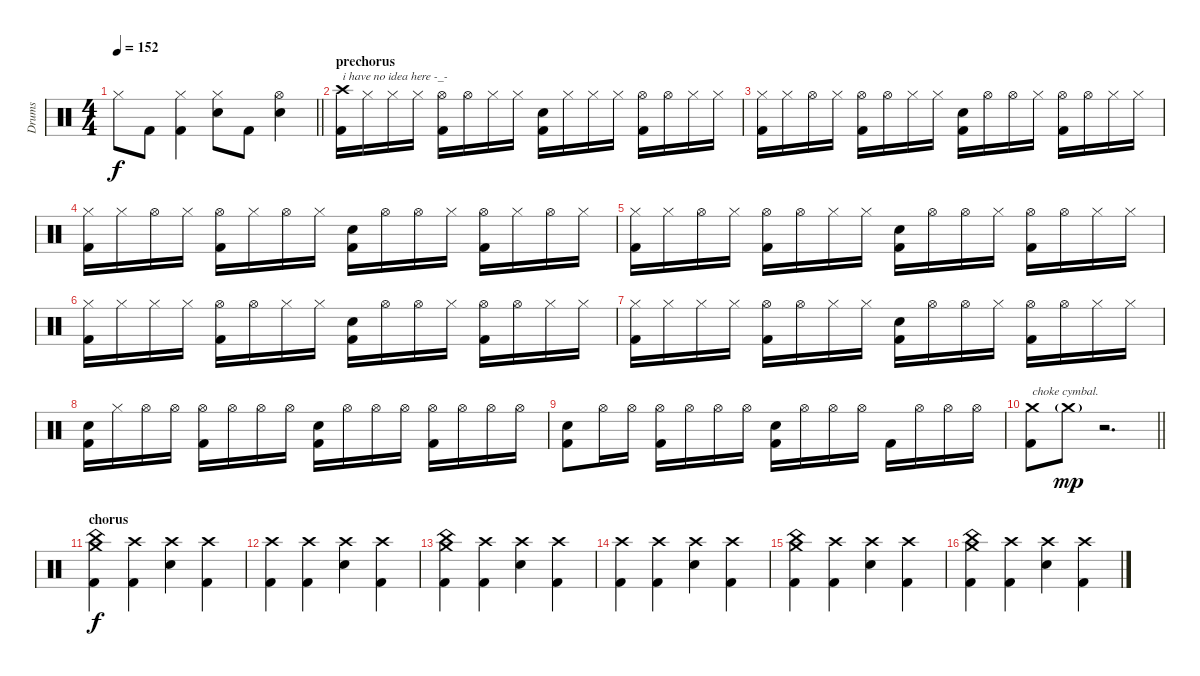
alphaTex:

\track ("Drums" "Drums") {instrument percussion}
\staff {score}
\articulation defaults
\ts (4 4)
\tempo 152
\clef neutral
\barLineRight lightlight
\ks c "Hi-Hat (closed)".8{dy f} "Kick (hit) 2".8
("Hi-Hat (closed)" "Kick (hit) 2").4 ("Hi-Hat (closed)" "Electric Snare (hit)").8 "Kick (hit) 2".8 ("Hi-Hat (open)" "Electric Snare (hit)").4 |
\section ("" "prechorus")
("Crash high (hit)" "Kick (hit) 2").16{txt "i have no idea here -_-"} "Hi-Hat (closed)".16 "Hi-Hat (closed)".16 "Hi-Hat (closed)".16 ("Hi-Hat (open)" "Kick (hit) 2").16 "Hi-Hat (open)".16 "Hi-Hat (closed)".16 "Hi-Hat (closed)".16 ("Electric Snare (hit)" "Kick (hit) 2").16 "Hi-Hat (closed)".16 "Hi-Hat (closed)".16 "Hi-Hat (closed)".16 ("Hi-Hat (open)" "Kick (hit) 2").16 "Hi-Hat (open)".16 "Hi-Hat (closed)".16 "Hi-Hat (closed)".16 |
("Hi-Hat (closed)" "Kick (hit) 2").16 "Hi-Hat (closed)".16 "Hi-Hat (open)".16 "Hi-Hat (closed)".16 ("Hi-Hat (open)" "Kick (hit) 2").16 "Hi-Hat (open)".16 "Hi-Hat (closed)".16 "Hi-Hat (closed)".16 ("Electric Snare (hit)" "Kick (hit) 2").16 "Hi-Hat (open)".16 "Hi-Hat (open)".16 "Hi-Hat (closed)".16 ("Hi-Hat (open)" "Kick (hit) 2").16 "Hi-Hat (open)".16 "Hi-Hat (closed)".16 "Hi-Hat (closed)".16 |
("Hi-Hat (closed)" "Kick (hit) 2").16 "Hi-Hat (closed)".16 "Hi-Hat (open)".16 "Hi-Hat (closed)".16 ("Hi-Hat (open)" "Kick (hit) 2").16 "Hi-Hat (closed)".16 "Hi-Hat (open)".16 "Hi-Hat (closed)".16 ("Electric Snare (hit)" "Kick (hit) 2").16 "Hi-Hat (open)".16 "Hi-Hat (open)".16 "Hi-Hat (closed)".16 ("Hi-Hat (open)" "Kick (hit) 2").16 "Hi-Hat (closed)".16 "Hi-Hat (open)".16 "Hi-Hat (closed)".16 |
("Hi-Hat (closed)" "Kick (hit) 2").16 "Hi-Hat (closed)".16 "Hi-Hat (open)".16 "Hi-Hat (closed)".16 ("Hi-Hat (open)" "Kick (hit) 2").16 "Hi-Hat (open)".16 "Hi-Hat (closed)".16 "Hi-Hat (closed)".16 ("Electric Snare (hit)" "Kick (hit) 2").16 "Hi-Hat (open)".16 "Hi-Hat (open)".16 "Hi-Hat (closed)".16 ("Hi-Hat (open)" "Kick (hit) 2").16 "Hi-Hat (open)".16 "Hi-Hat (closed)".16 "Hi-Hat (closed)".16 |
("Hi-Hat (closed)" "Kick (hit) 2").16 "Hi-Hat (closed)".16 "Hi-Hat (closed)".16 "Hi-Hat (closed)".16 ("Hi-Hat (open)" "Kick (hit) 2").16 "Hi-Hat (open)".16 "Hi-Hat (closed)".16 "Hi-Hat (closed)".16 ("Electric Snare (hit)" "Kick (hit) 2").16 "Hi-Hat (open)".16 "Hi-Hat (open)".16 "Hi-Hat (closed)".16 ("Hi-Hat (open)" "Kick (hit) 2").16 "Hi-Hat (open)".16 "Hi-Hat (closed)".16 "Hi-Hat (closed)".16 |
("Hi-Hat (closed)" "Kick (hit) 2").16 "Hi-Hat (closed)".16 "Hi-Hat (closed)".16 "Hi-Hat (closed)".16 ("Hi-Hat (open)" "Kick (hit) 2").16 "Hi-Hat (open)".16 "Hi-Hat (closed)".16 "Hi-Hat (closed)".16 ("Electric Snare (hit)" "Kick (hit) 2").16 "Hi-Hat (open)".16 "Hi-Hat (open)".16 "Hi-Hat (closed)".16 ("Hi-Hat (open)" "Kick (hit) 2").16 "Hi-Hat (open)".16 "Hi-Hat (closed)".16 "Hi-Hat (closed)".16 |
("Electric Snare (hit)" "Kick (hit) 2").16 "Hi-Hat (closed)".16 "Hi-Hat (open)".16 "Hi-Hat (open)".16 ("Hi-Hat (open)" "Kick (hit) 2").16 "Hi-Hat (open)".16 "Hi-Hat (open)".16 "Hi-Hat (open)".16 ("Electric Snare (hit)" "Kick (hit) 2").16 "Hi-Hat (open)".16 "Hi-Hat (open)".16 "Hi-Hat (open)".16 ("Hi-Hat (open)" "Kick (hit) 2").16 "Hi-Hat (open)".16 "Hi-Hat (open)".16 "Hi-Hat (open)".16 |
("Electric Snare (hit)" "Kick (hit) 2").8 "Hi-Hat (open)".16 "Hi-Hat (open)".16 ("Hi-Hat (open)" "Kick (hit) 2").16 "Hi-Hat (open)".16 "Hi-Hat (open)".16 "Hi-Hat (open)".16 ("Electric Snare (hit)" "Kick (hit) 2").16 "Hi-Hat (open)".16 "Hi-Hat (open)".16 "Hi-Hat (open)".16 "Kick (hit) 2".16 "Hi-Hat (open)".16 "Hi-Hat (open)".16 "Hi-Hat (open)".16 |
\barLineRight lightlight
("Crash medium (hit)" "Kick (hit) 2").8{txt "choke cymbal."} "Crash medium (hit)"{g}.8{dy mp volume 0} r.2{d} |
\section ("" "chorus")
("Crash medium (hit)" "China (hit)" "Kick (hit) 2").4{dy f volume 14} ("Crash high (hit)" "Kick (hit) 2").4 ("Crash high (hit)" "Electric Snare (hit)").4 ("Crash high (hit)" "Kick (hit) 2").4 |
("Crash high (hit)" "Kick (hit) 2").4 ("Crash high (hit)" "Kick (hit) 2").4 ("Crash high (hit)" "Electric Snare (hit)").4 ("Crash high (hit)" "Kick (hit) 2").4 |
("China (hit)" "Crash medium (hit)" "Kick (hit) 2").4 ("Crash high (hit)" "Kick (hit) 2").4 ("Crash high (hit)" "Electric Snare (hit)").4 ("Crash high (hit)" "Kick (hit) 2").4 |
("Crash high (hit)" "Kick (hit) 2").4 ("Crash high (hit)" "Kick (hit) 2").4 ("Crash high (hit)" "Electric Snare (hit)").4 ("Crash high (hit)" "Kick (hit) 2").4 |
("China (hit)" "Crash medium (hit)" "Kick (hit) 2").4 ("Crash high (hit)" "Kick (hit) 2").4 ("Crash high (hit)" "Electric Snare (hit)").4 ("Crash high (hit)" "Kick (hit) 2").4 |
("China (hit)" "Crash medium (hit)" "Kick (hit) 2").4 ("Crash high (hit)" "Kick (hit) 2").4 ("Crash high (hit)" "Electric Snare (hit)").4 ("Crash high (hit)" "Kick (hit) 2").4
